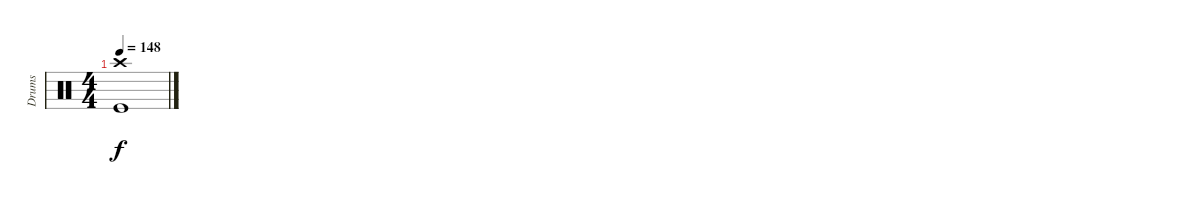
\track ("Drums" "Drums") {instrument percussion}
\staff {score}
\articulation defaults
\ts (4 4)
\tempo 148
\clef neutral
\ks c
("Crash high (hit)" "Kick (hit)").1{dy f}
